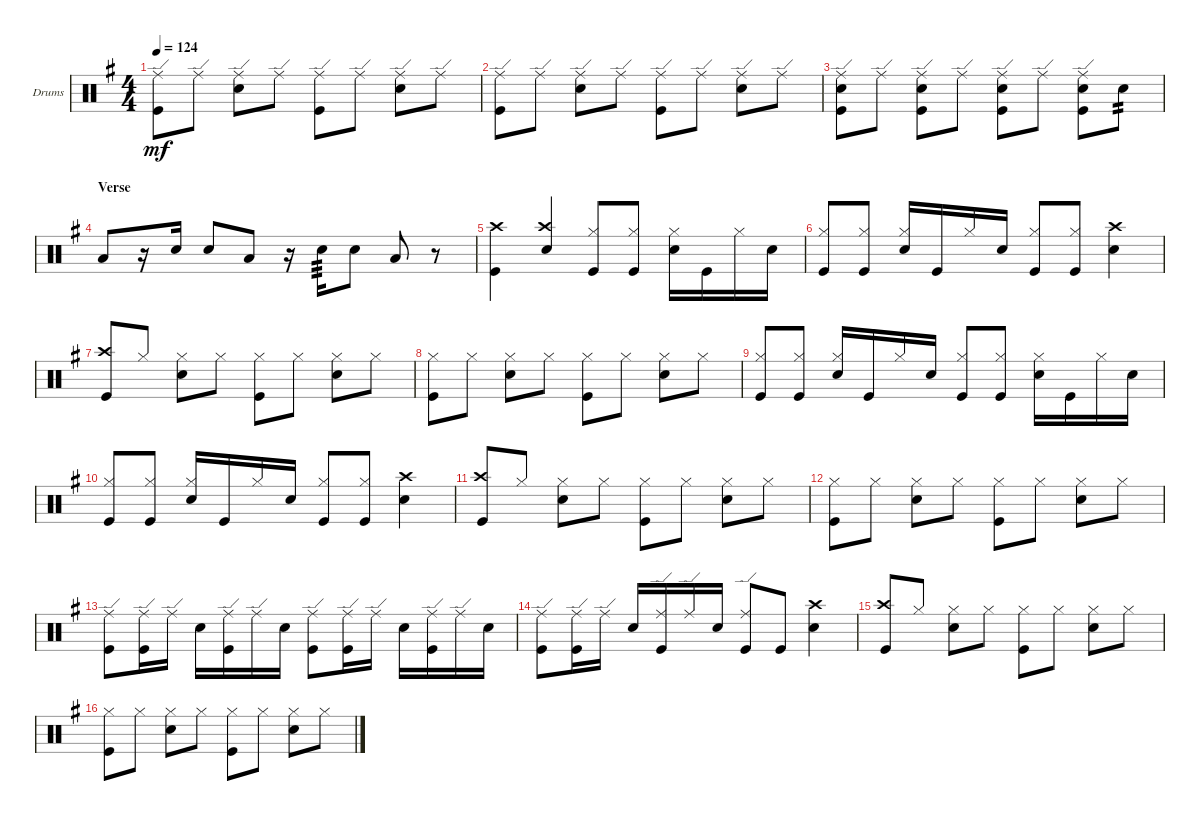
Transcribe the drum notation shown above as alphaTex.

\defaultSystemsLayout 4
\bracketExtendMode groupsimilarinstruments
\firstSystemTrackNameOrientation horizontal
\otherSystemsTrackNameOrientation horizontal
\track ("PETER CRISS" "Drums") {instrument percussion}
\staff {score}
\articulation defaults
\ts (4 4)
\tempo 124
\clef neutral
\scale
0.333333
\ks g
("Ride (edge)" "Kick (hit)").8{dy mf} "Ride (edge)".8 ("Ride (edge)" "Snare (hit) 2").8 "Ride (edge)".8 ("Ride (edge)" "Kick (hit)").8 "Ride (edge)".8 ("Ride (edge)" "Snare (hit) 2").8 "Ride (edge)".8 |
\scale
0.333333 ("Ride (edge)" "Kick (hit)").8 "Ride (edge)".8 ("Ride (edge)" "Snare (hit) 2").8 "Ride (edge)".8 ("Ride (edge)" "Kick (hit)").8 "Ride (edge)".8 ("Ride (edge)" "Snare (hit) 2").8 "Ride (edge)".8 |
\scale
0.333333 ("Ride (edge)" "Kick (hit)" "Snare (hit) 2").8 "Ride (edge)".8 ("Ride (edge)" "Snare (hit) 2" "Kick (hit)").8 "Ride (edge)".8 ("Ride (edge)" "Kick (hit)" "Snare (hit) 2").8 "Ride (edge)".8 ("Ride (edge)" "Snare (hit) 2" "Kick (hit)").8 "Snare (hit) 2".8{tp 2} |
\section ("" "Verse")
\scale
0.333333 "Low Tom (hit)".8{beam invert} r.16 "Snare (hit) 2".16 "Snare (hit) 2".8{beam invert} "Low Tom (hit)".8 r.16 "Snare (hit) 2".16{tp 3} "Snare (hit) 2".8 "Low Tom (hit)".8 r.8 |
\scale
0.333333 ("Crash high (hit)" "Kick (hit)").4 ("Snare (hit) 2" "Crash high (hit)").4 ("Hi-Hat (closed)" "Kick (hit)").8{beam invert} ("Kick (hit)" "Hi-Hat (closed)").8 ("Snare (hit) 2" "Hi-Hat (closed)").16 "Kick (hit)".16 "Hi-Hat (closed)".16 "Snare (hit) 2".16 |
\scale
0.333333 ("Hi-Hat (closed)" "Kick (hit)").8{beam invert} ("Kick (hit)" "Hi-Hat (closed)").8 ("Snare (hit) 2" "Hi-Hat (closed)").16 "Kick (hit)".16 "Hi-Hat (closed)".16 "Snare (hit) 2".16 ("Hi-Hat (closed)" "Kick (hit)").8{beam invert} ("Kick (hit)" "Hi-Hat (closed)").8 ("Crash high (hit)" "Snare (hit) 2").4 |
\scale
0.333333 ("Crash high (hit)" "Kick (hit)").8{beam invert} "Hi-Hat (closed)".8 ("Hi-Hat (closed)" "Snare (hit) 2").8 "Hi-Hat (closed)".8 ("Kick (hit)" "Hi-Hat (closed)").8 "Hi-Hat (closed)".8 ("Hi-Hat (closed)" "Snare (hit) 2").8 "Hi-Hat (closed)".8 |
\scale
0.333333 ("Kick (hit)" "Hi-Hat (closed)").8 "Hi-Hat (closed)".8 ("Hi-Hat (closed)" "Snare (hit) 2").8 "Hi-Hat (closed)".8 ("Kick (hit)" "Hi-Hat (closed)").8 "Hi-Hat (closed)".8 ("Hi-Hat (closed)" "Snare (hit) 2").8 "Hi-Hat (closed)".8 |
\scale
0.333333 ("Hi-Hat (closed)" "Kick (hit)").8{beam invert} ("Kick (hit)" "Hi-Hat (closed)").8 ("Snare (hit) 2" "Hi-Hat (closed)").16 "Kick (hit)".16 "Hi-Hat (closed)".16 "Snare (hit) 2".16 ("Hi-Hat (closed)" "Kick (hit)").8{beam invert} ("Kick (hit)" "Hi-Hat (closed)").8 ("Snare (hit) 2" "Hi-Hat (closed)").16 "Kick (hit)".16 "Hi-Hat (closed)".16 "Snare (hit) 2".16 |
\scale
0.333333 ("Hi-Hat (closed)" "Kick (hit)").8{beam invert} ("Kick (hit)" "Hi-Hat (closed)").8 ("Snare (hit) 2" "Hi-Hat (closed)").16 "Kick (hit)".16 "Hi-Hat (closed)".16 "Snare (hit) 2".16 ("Hi-Hat (closed)" "Kick (hit)").8{beam invert} ("Kick (hit)" "Hi-Hat (closed)").8 ("Crash high (hit)" "Snare (hit) 2").4 |
\scale
0.333333 ("Crash high (hit)" "Kick (hit)").8{beam invert} "Hi-Hat (closed)".8 ("Hi-Hat (closed)" "Snare (hit) 2").8 "Hi-Hat (closed)".8 ("Kick (hit)" "Hi-Hat (closed)").8 "Hi-Hat (closed)".8 ("Hi-Hat (closed)" "Snare (hit) 2").8 "Hi-Hat (closed)".8 |
\scale
0.333333 ("Kick (hit)" "Hi-Hat (closed)").8 "Hi-Hat (closed)".8 ("Hi-Hat (closed)" "Snare (hit) 2").8 "Hi-Hat (closed)".8 ("Kick (hit)" "Hi-Hat (closed)").8 "Hi-Hat (closed)".8 ("Hi-Hat (closed)" "Snare (hit) 2").8 "Hi-Hat (closed)".8 |
\scale
0.333333 ("Ride (edge)" "Kick (hit)").8 ("Ride (edge)" "Kick (hit)").16 "Ride (edge)".16 "Snare (hit) 2".16 ("Kick (hit)" "Ride (edge)").16 "Ride (edge)".16 "Snare (hit) 2".16 ("Ride (edge)" "Kick (hit)").8 ("Ride (edge)" "Kick (hit)").16 "Ride (edge)".16 "Snare (hit) 2".16 ("Kick (hit)" "Ride (edge)").16 "Ride (edge)".16 "Snare (hit) 2".16 |
\scale
0.333333 ("Ride (edge)" "Kick (hit)").8 ("Ride (edge)" "Kick (hit)").16 "Ride (edge)".16 "Snare (hit) 2".16 ("Kick (hit)" "Ride (edge)").16 "Ride (edge)".16 "Snare (hit) 2".16 ("Ride (edge)" "Kick (hit)").8{beam invert} "Kick (hit)".8 ("Crash high (hit)" "Snare (hit) 2").4 |
\scale
0.333333 ("Crash high (hit)" "Kick (hit)").8{beam invert} "Hi-Hat (closed)".8 ("Hi-Hat (closed)" "Snare (hit) 2").8 "Hi-Hat (closed)".8 ("Kick (hit)" "Hi-Hat (closed)").8 "Hi-Hat (closed)".8 ("Hi-Hat (closed)" "Snare (hit) 2").8 "Hi-Hat (closed)".8 |
\scale
0.333333 ("Kick (hit)" "Hi-Hat (closed)").8 "Hi-Hat (closed)".8 ("Hi-Hat (closed)" "Snare (hit) 2").8 "Hi-Hat (closed)".8 ("Kick (hit)" "Hi-Hat (closed)").8 "Hi-Hat (closed)".8 ("Hi-Hat (closed)" "Snare (hit) 2").8 "Hi-Hat (closed)".8
